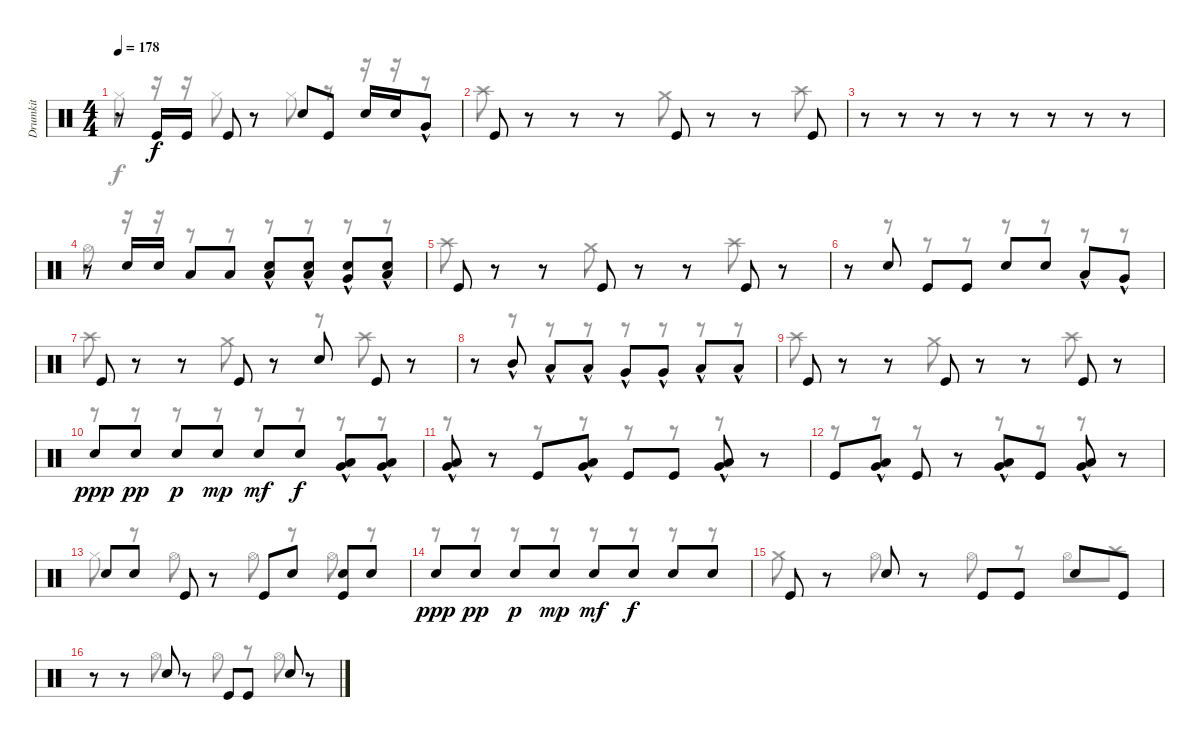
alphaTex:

\track ("Drumkit" "Drumkit") {instrument percussion}
\staff {score}
\articulation defaults
\voice
\ts (4 4)
\tempo 178
\clef neutral
\ks c
r.8{dy f} "Kick (hit)".16 "Kick (hit)".16 "Kick (hit)".8 r.8 "Snare (hit) 2".8 "Kick (hit)".8 "Snare (hit) 2".16 "Snare (hit) 2".16 "Very Low Tom (hit)"{hac}.8 |
"Kick (hit)".8 r.8 r.8 r.8 "Kick (hit)".8 r.8 r.8 "Kick (hit)".8 |
r.8 r.8 r.8 r.8 r.8 r.8 r.8 r.8 |
r.8 "Snare (hit) 2".16 "Snare (hit) 2".16 "Low Tom (hit)".8 "Low Tom (hit)".8 ("Snare (hit) 2" "Low Tom (hit)"{hac}).8 ("Snare (hit) 2" "Low Tom (hit)"{hac}).8 ("Snare (hit) 2" "Very Low Tom (hit)"{hac}).8 ("Snare (hit) 2" "Low Floor Tom (hit)"{hac}).8 |
\section ("" "")
"Kick (hit)".8 r.8 r.8 "Kick (hit)".8 r.8 r.8 "Kick (hit)".8 r.8 |
r.8 "Snare (hit) 2".8 "Kick (hit)".8 "Kick (hit)".8 "Snare (hit) 2".8 "Snare (hit) 2".8 "Low Tom (hit)"{hac}.8 "Very Low Tom (hit)"{hac}.8 |
"Kick (hit)".8 r.8 r.8 "Kick (hit)".8 r.8 "Snare (hit) 2".8 "Kick (hit)".8 r.8 |
r.8 "Mid Tom (hit)"{hac}.8 "Low Tom (hit)"{hac}.8 "Low Tom (hit)"{hac}.8 "Very Low Tom (hit)"{hac}.8 "Very Low Tom (hit)"{hac}.8 "Low Floor Tom (hit)"{hac}.8 "Low Floor Tom (hit)"{hac}.8 |
"Kick (hit)".8 r.8 r.8 "Kick (hit)".8 r.8 r.8 "Kick (hit)".8 r.8 |
"Snare (hit) 2".8{dy ppp} "Snare (hit) 2".8{dy pp} "Snare (hit) 2".8{dy p} "Snare (hit) 2".8{dy mp} "Snare (hit) 2".8{dy mf} "Snare (hit) 2".8{dy f} ("Low Tom (hit)"{hac} "Very Low Tom (hit)"{hac}).8 ("Low Floor Tom (hit)"{hac} "Very Low Tom (hit)"{hac}).8 |
("Low Tom (hit)"{hac} "Very Low Tom (hit)"{hac}).8 r.8 "Kick (hit)".8 ("Low Tom (hit)"{hac} "Very Low Tom (hit)"{hac}).8 "Kick (hit)".8 "Kick (hit)".8 ("Low Tom (hit)"{hac} "Very Low Tom (hit)"{hac}).8 r.8 |
"Kick (hit)".8 ("Low Tom (hit)"{hac} "Very Low Tom (hit)"{hac}).8 "Kick (hit)".8 r.8 ("Low Tom (hit)"{hac} "Very Low Tom (hit)"{hac}).8 "Kick (hit)".8 ("Low Tom (hit)"{hac} "Very Low Tom (hit)"{hac}).8 r.8 |
"Snare (hit) 2".8 "Snare (hit) 2".8 "Kick (hit)".8 r.8 "Kick (hit)".8 "Snare (hit) 2".8 ("Kick (hit)" "Snare (hit) 2").8 "Snare (hit) 2".8 |
"Snare (hit) 2".8{dy ppp} "Snare (hit) 2".8{dy pp} "Snare (hit) 2".8{dy p} "Snare (hit) 2".8{dy mp} "Snare (hit) 2".8{dy mf} "Snare (hit) 2".8{dy f} "Snare (hit) 2".8 "Snare (hit) 2".8 |
\section ("" "")
"Kick (hit)".8 r.8 "Snare (hit) 2".8 r.8 "Kick (hit)".8 "Kick (hit)".8 "Snare (hit) 2".8 "Kick (hit)".8 |
r.8 r.8 "Snare (hit) 2".8 r.8 "Kick (hit)".8 "Kick (hit)".8 "Snare (hit) 2".8 r.8
\voice
\clef neutral
\ottava regular
\simile none
\ks c "Hi-Hat (closed)".8{dy f}
r.16 r.16 "Hi-Hat (closed)".8 r.8 "Hi-Hat (closed)".8 r.8 r.16 r.16 r.8 |
"Crash high (hit)".8 r.8 r.8 r.8 "Crash medium (hit)".8 r.8 r.8 "Crash high (hit)".8 |
r.8 r.8 r.8 r.8 r.8 r.8 r.8 r.8 |
"Hi-Hat (open)".8 r.16 r.16 r.8 r.8 r.8 r.8 r.8 r.8 |
"Crash high (hit)".8 r.8 r.8 "Crash medium (hit)".8 r.8 r.8 "Crash high (hit)".8 r.8 |
r.8 r.8 r.8 r.8 r.8 r.8 r.8 r.8 |
"Crash high (hit)".8 r.8 r.8 "Crash medium (hit)".8 r.8 r.8 "Crash high (hit)".8 r.8 |
r.8 r.8 r.8 r.8 r.8 r.8 r.8 r.8 |
"Crash high (hit)".8 r.8 r.8 "Crash medium (hit)".8 r.8 r.8 "Crash high (hit)".8 r.8 |
r.8 r.8 r.8 r.8 r.8 r.8 r.8 r.8 |
r.8 r.8 r.8 r.8 r.8 r.8 r.8 r.8 |
r.8 r.8 r.8 r.8 r.8 r.8 r.8 r.8 |
"Hi-Hat (closed)".8 r.8 "Hi-Hat (open)".8 r.8 "Hi-Hat (open)".8 r.8 "Hi-Hat (open)".8 r.8 |
r.8 r.8 r.8 r.8 r.8 r.8 r.8 r.8 |
"Crash medium (hit)".8 r.8 "Hi-Hat (open)".8 r.8 "Hi-Hat (open)".8 r.8 "Hi-Hat (open)".8 "Crash high (hit)".8 |
r.8 r.8 "Hi-Hat (open)".8 r.8 "Hi-Hat (open)".8 r.8 "Hi-Hat (open)".8 r.8
